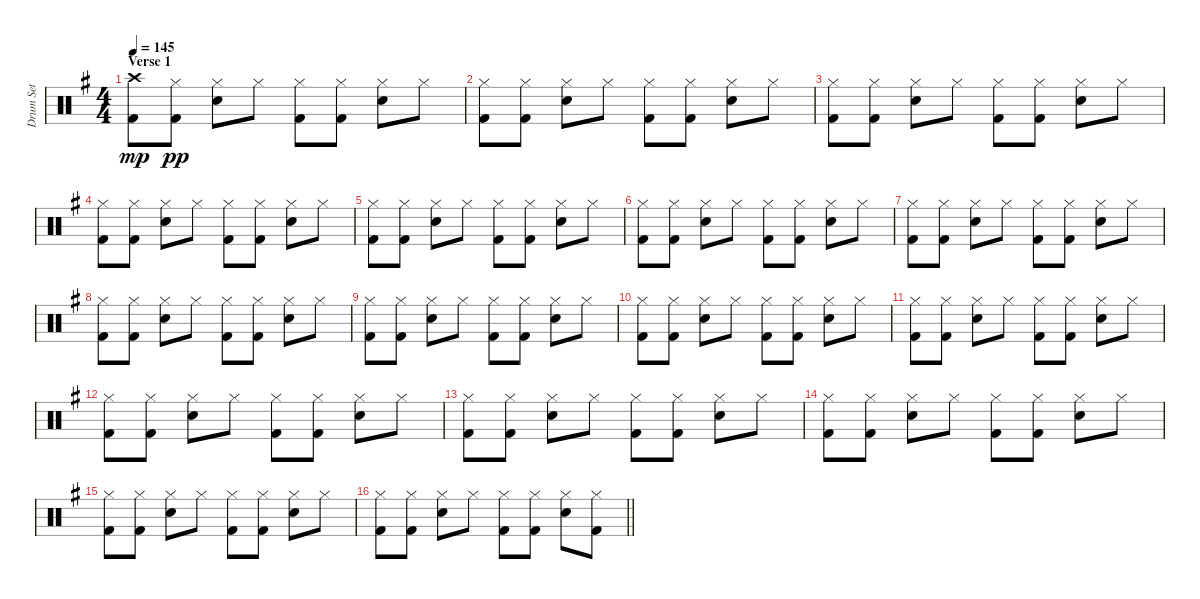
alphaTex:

\track ("Drum Set" "Drum Set") {instrument percussion}
\staff {score}
\articulation defaults
\ts (4 4)
\section ("" "Verse 1")
\tempo 145
\clef neutral
\ks g
("Crash high (hit)" "Kick (hit) 2").8{dy mp} ("Hi-Hat (closed)" "Kick (hit) 2").8{dy pp} ("Hi-Hat (closed)" "Electric Snare (hit)").8 "Hi-Hat (closed)".8 ("Hi-Hat (closed)" "Kick (hit) 2").8 ("Hi-Hat (closed)" "Kick (hit) 2").8 ("Hi-Hat (closed)" "Electric Snare (hit)").8 "Hi-Hat (closed)".8 |
("Hi-Hat (closed)" "Kick (hit) 2").8 ("Hi-Hat (closed)" "Kick (hit) 2").8 ("Hi-Hat (closed)" "Electric Snare (hit)").8 "Hi-Hat (closed)".8 ("Hi-Hat (closed)" "Kick (hit) 2").8 ("Hi-Hat (closed)" "Kick (hit) 2").8 ("Hi-Hat (closed)" "Electric Snare (hit)").8 "Hi-Hat (closed)".8 |
("Hi-Hat (closed)" "Kick (hit) 2").8 ("Hi-Hat (closed)" "Kick (hit) 2").8 ("Hi-Hat (closed)" "Electric Snare (hit)").8 "Hi-Hat (closed)".8 ("Hi-Hat (closed)" "Kick (hit) 2").8 ("Hi-Hat (closed)" "Kick (hit) 2").8 ("Hi-Hat (closed)" "Electric Snare (hit)").8 "Hi-Hat (closed)".8 |
("Hi-Hat (closed)" "Kick (hit) 2").8 ("Hi-Hat (closed)" "Kick (hit) 2").8 ("Hi-Hat (closed)" "Electric Snare (hit)").8 "Hi-Hat (closed)".8 ("Hi-Hat (closed)" "Kick (hit) 2").8 ("Hi-Hat (closed)" "Kick (hit) 2").8 ("Hi-Hat (closed)" "Electric Snare (hit)").8 "Hi-Hat (closed)".8 |
("Hi-Hat (closed)" "Kick (hit) 2").8 ("Hi-Hat (closed)" "Kick (hit) 2").8 ("Hi-Hat (closed)" "Electric Snare (hit)").8 "Hi-Hat (closed)".8 ("Hi-Hat (closed)" "Kick (hit) 2").8 ("Hi-Hat (closed)" "Kick (hit) 2").8 ("Hi-Hat (closed)" "Electric Snare (hit)").8 "Hi-Hat (closed)".8 |
("Hi-Hat (closed)" "Kick (hit) 2").8 ("Hi-Hat (closed)" "Kick (hit) 2").8 ("Hi-Hat (closed)" "Electric Snare (hit)").8 "Hi-Hat (closed)".8 ("Hi-Hat (closed)" "Kick (hit) 2").8 ("Hi-Hat (closed)" "Kick (hit) 2").8 ("Hi-Hat (closed)" "Electric Snare (hit)").8 "Hi-Hat (closed)".8 |
("Hi-Hat (closed)" "Kick (hit) 2").8 ("Hi-Hat (closed)" "Kick (hit) 2").8 ("Hi-Hat (closed)" "Electric Snare (hit)").8 "Hi-Hat (closed)".8 ("Hi-Hat (closed)" "Kick (hit) 2").8 ("Hi-Hat (closed)" "Kick (hit) 2").8 ("Hi-Hat (closed)" "Electric Snare (hit)").8 "Hi-Hat (closed)".8 |
("Hi-Hat (closed)" "Kick (hit) 2").8 ("Hi-Hat (closed)" "Kick (hit) 2").8 ("Hi-Hat (closed)" "Electric Snare (hit)").8 "Hi-Hat (closed)".8 ("Hi-Hat (closed)" "Kick (hit) 2").8 ("Hi-Hat (closed)" "Kick (hit) 2").8 ("Hi-Hat (closed)" "Electric Snare (hit)").8 "Hi-Hat (closed)".8 |
("Hi-Hat (closed)" "Kick (hit) 2").8 ("Hi-Hat (closed)" "Kick (hit) 2").8 ("Hi-Hat (closed)" "Electric Snare (hit)").8 "Hi-Hat (closed)".8 ("Hi-Hat (closed)" "Kick (hit) 2").8 ("Hi-Hat (closed)" "Kick (hit) 2").8 ("Hi-Hat (closed)" "Electric Snare (hit)").8 "Hi-Hat (closed)".8 |
("Hi-Hat (closed)" "Kick (hit) 2").8 ("Hi-Hat (closed)" "Kick (hit) 2").8 ("Hi-Hat (closed)" "Electric Snare (hit)").8 "Hi-Hat (closed)".8 ("Hi-Hat (closed)" "Kick (hit) 2").8 ("Hi-Hat (closed)" "Kick (hit) 2").8 ("Hi-Hat (closed)" "Electric Snare (hit)").8 "Hi-Hat (closed)".8 |
("Hi-Hat (closed)" "Kick (hit) 2").8 ("Hi-Hat (closed)" "Kick (hit) 2").8 ("Hi-Hat (closed)" "Electric Snare (hit)").8 "Hi-Hat (closed)".8 ("Hi-Hat (closed)" "Kick (hit) 2").8 ("Hi-Hat (closed)" "Kick (hit) 2").8 ("Hi-Hat (closed)" "Electric Snare (hit)").8 "Hi-Hat (closed)".8 |
("Hi-Hat (closed)" "Kick (hit) 2").8 ("Hi-Hat (closed)" "Kick (hit) 2").8 ("Hi-Hat (closed)" "Electric Snare (hit)").8 "Hi-Hat (closed)".8 ("Hi-Hat (closed)" "Kick (hit) 2").8 ("Hi-Hat (closed)" "Kick (hit) 2").8 ("Hi-Hat (closed)" "Electric Snare (hit)").8 "Hi-Hat (closed)".8 |
("Hi-Hat (closed)" "Kick (hit) 2").8 ("Hi-Hat (closed)" "Kick (hit) 2").8 ("Hi-Hat (closed)" "Electric Snare (hit)").8 "Hi-Hat (closed)".8 ("Hi-Hat (closed)" "Kick (hit) 2").8 ("Hi-Hat (closed)" "Kick (hit) 2").8 ("Hi-Hat (closed)" "Electric Snare (hit)").8 "Hi-Hat (closed)".8 |
("Hi-Hat (closed)" "Kick (hit) 2").8 ("Hi-Hat (closed)" "Kick (hit) 2").8 ("Hi-Hat (closed)" "Electric Snare (hit)").8 "Hi-Hat (closed)".8 ("Hi-Hat (closed)" "Kick (hit) 2").8 ("Hi-Hat (closed)" "Kick (hit) 2").8 ("Hi-Hat (closed)" "Electric Snare (hit)").8 "Hi-Hat (closed)".8 |
("Hi-Hat (closed)" "Kick (hit) 2").8 ("Hi-Hat (closed)" "Kick (hit) 2").8 ("Hi-Hat (closed)" "Electric Snare (hit)").8 "Hi-Hat (closed)".8 ("Hi-Hat (closed)" "Kick (hit) 2").8 ("Hi-Hat (closed)" "Kick (hit) 2").8 ("Hi-Hat (closed)" "Electric Snare (hit)").8 "Hi-Hat (closed)".8 |
\barLineRight lightlight
("Hi-Hat (closed)" "Kick (hit) 2").8 ("Hi-Hat (closed)" "Kick (hit) 2").8 ("Hi-Hat (closed)" "Electric Snare (hit)").8 "Hi-Hat (closed)".8 ("Hi-Hat (closed)" "Kick (hit) 2").8 ("Hi-Hat (closed)" "Kick (hit) 2").8 ("Hi-Hat (closed)" "Electric Snare (hit)").8 ("Hi-Hat (closed)" "Kick (hit) 2").8
